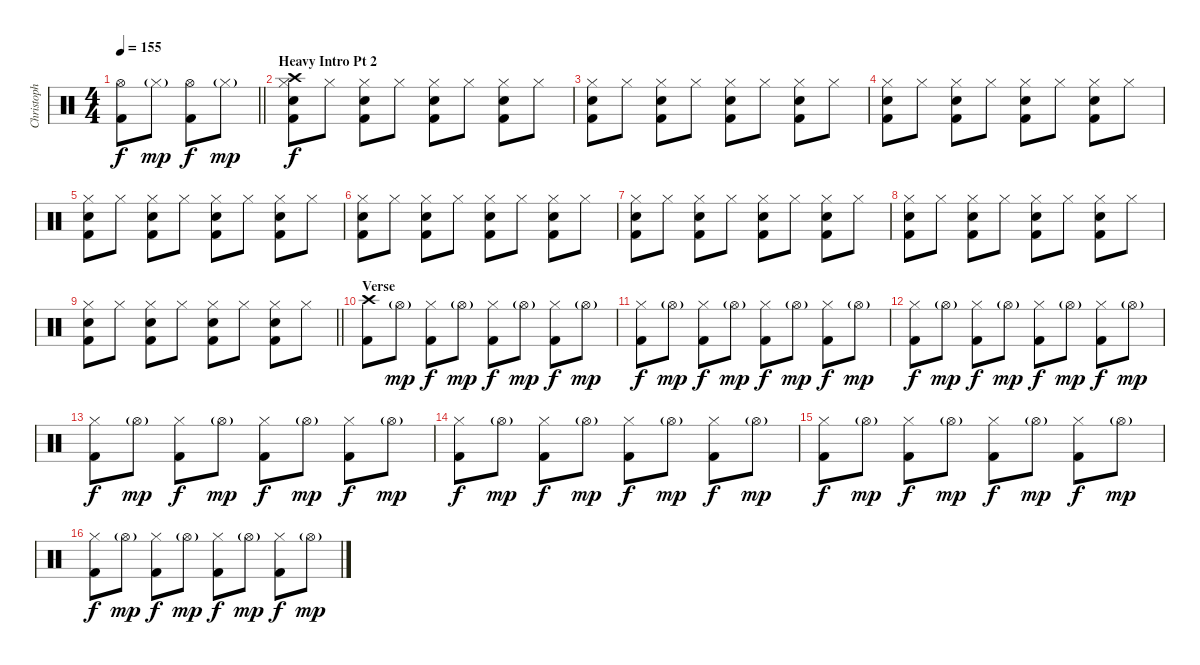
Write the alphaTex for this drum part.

\track ("Christoph \"Doom\" Schneider" "Christoph ") {instrument percussion}
\staff {score}
\articulation defaults
\ts (4 4)
\tempo 155
\clef neutral
\barLineRight lightlight
\ks c
("Hi-Hat (open)" "Kick (hit) 2").8{dy f} "Hi-Hat (closed)"{g}.8{dy mp} ("Hi-Hat (open)" "Kick (hit) 2").8{dy f} "Hi-Hat (closed)"{g}.8{dy mp} |
\section ("" "Heavy Intro Pt 2")
("Crash high (hit)" "Hi-Hat (closed)" "Snare (hit) 2" "Kick (hit) 2").8{dy f} "Hi-Hat (closed)".8 ("Hi-Hat (closed)" "Snare (hit) 2" "Kick (hit) 2").8 "Hi-Hat (closed)".8 ("Hi-Hat (closed)" "Snare (hit) 2" "Kick (hit) 2").8 "Hi-Hat (closed)".8 ("Hi-Hat (closed)" "Snare (hit) 2" "Kick (hit) 2").8 "Hi-Hat (closed)".8 |
("Hi-Hat (closed)" "Snare (hit) 2" "Kick (hit) 2").8 "Hi-Hat (closed)".8 ("Hi-Hat (closed)" "Snare (hit) 2" "Kick (hit) 2").8 "Hi-Hat (closed)".8 ("Hi-Hat (closed)" "Snare (hit) 2" "Kick (hit) 2").8 "Hi-Hat (closed)".8 ("Hi-Hat (closed)" "Snare (hit) 2" "Kick (hit) 2").8 "Hi-Hat (closed)".8 |
("Hi-Hat (closed)" "Snare (hit) 2" "Kick (hit) 2").8 "Hi-Hat (closed)".8 ("Hi-Hat (closed)" "Snare (hit) 2" "Kick (hit) 2").8 "Hi-Hat (closed)".8 ("Hi-Hat (closed)" "Snare (hit) 2" "Kick (hit) 2").8 "Hi-Hat (closed)".8 ("Hi-Hat (closed)" "Snare (hit) 2" "Kick (hit) 2").8 "Hi-Hat (closed)".8 |
("Hi-Hat (closed)" "Snare (hit) 2" "Kick (hit) 2").8 "Hi-Hat (closed)".8 ("Hi-Hat (closed)" "Snare (hit) 2" "Kick (hit) 2").8 "Hi-Hat (closed)".8 ("Hi-Hat (closed)" "Snare (hit) 2" "Kick (hit) 2").8 "Hi-Hat (closed)".8 ("Hi-Hat (closed)" "Snare (hit) 2" "Kick (hit) 2").8 "Hi-Hat (closed)".8 |
("Hi-Hat (closed)" "Snare (hit) 2" "Kick (hit) 2").8 "Hi-Hat (closed)".8 ("Hi-Hat (closed)" "Snare (hit) 2" "Kick (hit) 2").8 "Hi-Hat (closed)".8 ("Hi-Hat (closed)" "Snare (hit) 2" "Kick (hit) 2").8 "Hi-Hat (closed)".8 ("Hi-Hat (closed)" "Snare (hit) 2" "Kick (hit) 2").8 "Hi-Hat (closed)".8 |
("Hi-Hat (closed)" "Snare (hit) 2" "Kick (hit) 2").8 "Hi-Hat (closed)".8 ("Hi-Hat (closed)" "Snare (hit) 2" "Kick (hit) 2").8 "Hi-Hat (closed)".8 ("Hi-Hat (closed)" "Snare (hit) 2" "Kick (hit) 2").8 "Hi-Hat (closed)".8 ("Hi-Hat (closed)" "Snare (hit) 2" "Kick (hit) 2").8 "Hi-Hat (closed)".8 |
("Hi-Hat (closed)" "Snare (hit) 2" "Kick (hit) 2").8 "Hi-Hat (closed)".8 ("Hi-Hat (closed)" "Snare (hit) 2" "Kick (hit) 2").8 "Hi-Hat (closed)".8 ("Hi-Hat (closed)" "Snare (hit) 2" "Kick (hit) 2").8 "Hi-Hat (closed)".8 ("Hi-Hat (closed)" "Snare (hit) 2" "Kick (hit) 2").8 "Hi-Hat (closed)".8 |
\barLineRight lightlight
("Hi-Hat (closed)" "Snare (hit) 2" "Kick (hit) 2").8 "Hi-Hat (closed)".8 ("Hi-Hat (closed)" "Snare (hit) 2" "Kick (hit) 2").8 "Hi-Hat (closed)".8 ("Hi-Hat (closed)" "Snare (hit) 2" "Kick (hit) 2").8 "Hi-Hat (closed)".8 ("Hi-Hat (closed)" "Snare (hit) 2" "Kick (hit) 2").8 "Hi-Hat (closed)".8 |
\section ("" "Verse")
("Crash high (hit)" "Kick (hit) 2").8 "Hi-Hat (open)"{g}.8{dy mp} ("Hi-Hat (closed)" "Kick (hit) 2").8{dy f} "Hi-Hat (open)"{g}.8{dy mp} ("Hi-Hat (closed)" "Kick (hit) 2").8{dy f} "Hi-Hat (open)"{g}.8{dy mp} ("Hi-Hat (closed)" "Kick (hit) 2").8{dy f} "Hi-Hat (open)"{g}.8{dy mp} |
("Hi-Hat (closed)" "Kick (hit) 2").8{dy f} "Hi-Hat (open)"{g}.8{dy mp} ("Hi-Hat (closed)" "Kick (hit) 2").8{dy f} "Hi-Hat (open)"{g}.8{dy mp} ("Hi-Hat (closed)" "Kick (hit) 2").8{dy f} "Hi-Hat (open)"{g}.8{dy mp} ("Hi-Hat (closed)" "Kick (hit) 2").8{dy f} "Hi-Hat (open)"{g}.8{dy mp} |
("Hi-Hat (closed)" "Kick (hit) 2").8{dy f} "Hi-Hat (open)"{g}.8{dy mp} ("Hi-Hat (closed)" "Kick (hit) 2").8{dy f} "Hi-Hat (open)"{g}.8{dy mp} ("Hi-Hat (closed)" "Kick (hit) 2").8{dy f} "Hi-Hat (open)"{g}.8{dy mp} ("Hi-Hat (closed)" "Kick (hit) 2").8{dy f} "Hi-Hat (open)"{g}.8{dy mp} |
("Hi-Hat (closed)" "Kick (hit) 2").8{dy f} "Hi-Hat (open)"{g}.8{dy mp} ("Hi-Hat (closed)" "Kick (hit) 2").8{dy f} "Hi-Hat (open)"{g}.8{dy mp} ("Hi-Hat (closed)" "Kick (hit) 2").8{dy f} "Hi-Hat (open)"{g}.8{dy mp} ("Hi-Hat (closed)" "Kick (hit) 2").8{dy f} "Hi-Hat (open)"{g}.8{dy mp} |
("Hi-Hat (closed)" "Kick (hit) 2").8{dy f} "Hi-Hat (open)"{g}.8{dy mp} ("Hi-Hat (closed)" "Kick (hit) 2").8{dy f} "Hi-Hat (open)"{g}.8{dy mp} ("Hi-Hat (closed)" "Kick (hit) 2").8{dy f} "Hi-Hat (open)"{g}.8{dy mp} ("Hi-Hat (closed)" "Kick (hit) 2").8{dy f} "Hi-Hat (open)"{g}.8{dy mp} |
("Hi-Hat (closed)" "Kick (hit) 2").8{dy f} "Hi-Hat (open)"{g}.8{dy mp} ("Hi-Hat (closed)" "Kick (hit) 2").8{dy f} "Hi-Hat (open)"{g}.8{dy mp} ("Hi-Hat (closed)" "Kick (hit) 2").8{dy f} "Hi-Hat (open)"{g}.8{dy mp} ("Hi-Hat (closed)" "Kick (hit) 2").8{dy f} "Hi-Hat (open)"{g}.8{dy mp} |
("Hi-Hat (closed)" "Kick (hit) 2").8{dy f} "Hi-Hat (open)"{g}.8{dy mp} ("Hi-Hat (closed)" "Kick (hit) 2").8{dy f} "Hi-Hat (open)"{g}.8{dy mp} ("Hi-Hat (closed)" "Kick (hit) 2").8{dy f} "Hi-Hat (open)"{g}.8{dy mp} ("Hi-Hat (closed)" "Kick (hit) 2").8{dy f} "Hi-Hat (open)"{g}.8{dy mp}
